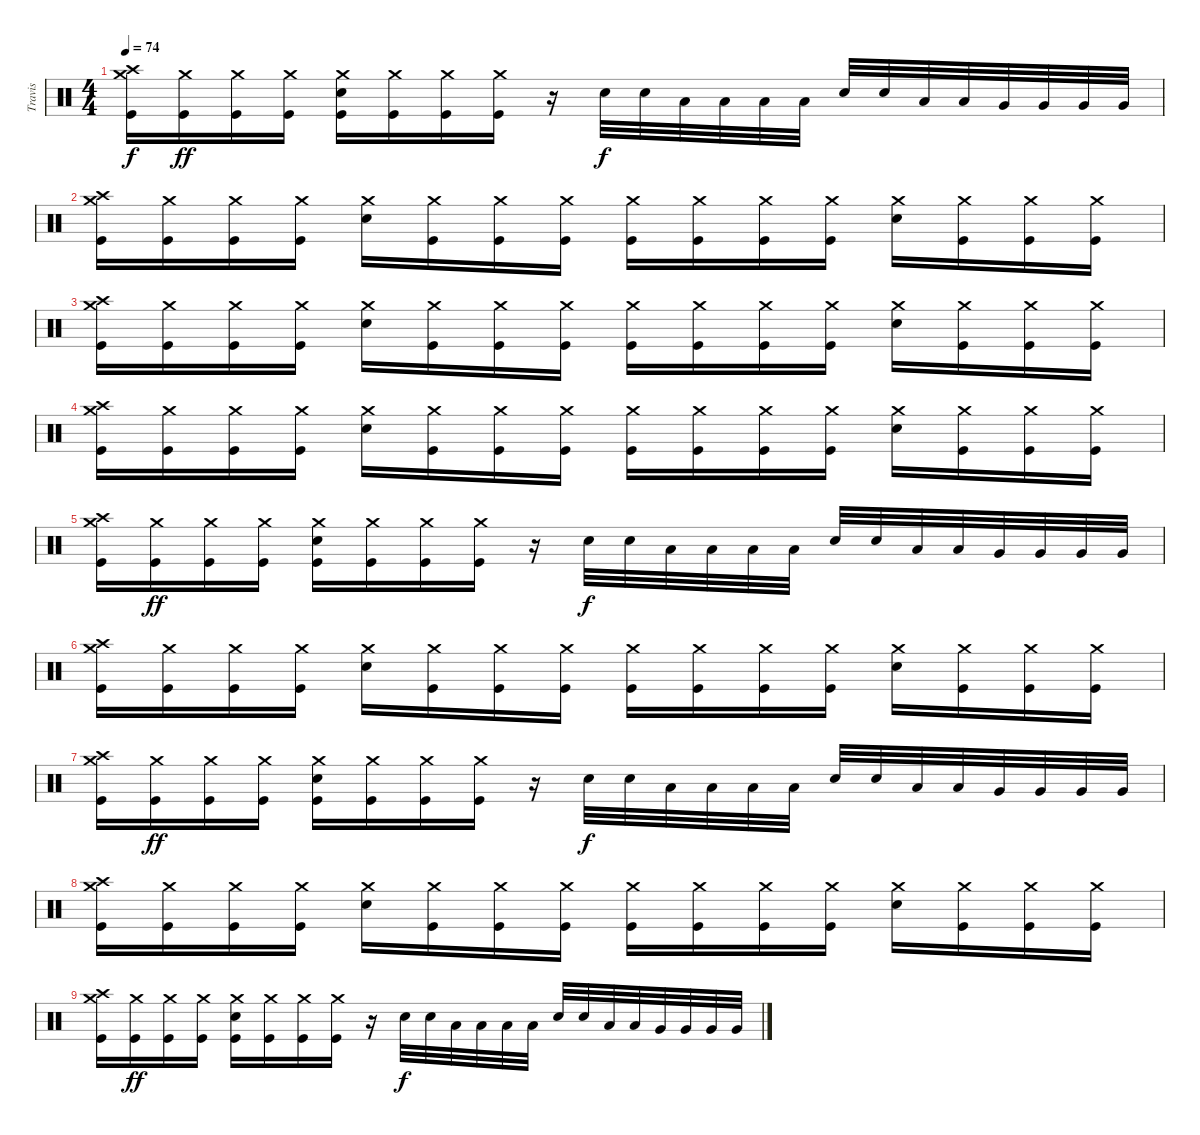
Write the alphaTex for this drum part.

\track ("Travis" "Travis") {instrument percussion}
\staff {score}
\articulation defaults
\ts (4 4)
\tempo 74
\clef neutral
\ks c
("Crash high (hit)" "Crash medium (hit)" "Kick (hit)").16{dy f} ("Crash medium (hit)" "Kick (hit)").16{dy ff} ("Crash medium (hit)" "Kick (hit)").16 ("Crash medium (hit)" "Kick (hit)").16 ("Crash medium (hit)" "Electric Snare (hit)" "Kick (hit)").16 ("Crash medium (hit)" "Kick (hit)").16 ("Crash medium (hit)" "Kick (hit)").16 ("Crash medium (hit)" "Kick (hit)").16 r.16 "Electric Snare (hit)".32{dy f} "Electric Snare (hit)".32 "Low Tom (hit)".32 "Low Tom (hit)".32 "Low Tom (hit)".32 "Low Tom (hit)".32 "Electric Snare (hit)".32 "Electric Snare (hit)".32 "Low Tom (hit)".32 "Low Tom (hit)".32 "Very Low Tom (hit)".32 "Very Low Tom (hit)".32 "Very Low Tom (hit)".32 "Very Low Tom (hit)".32 |
("Crash high (hit)" "Crash medium (hit)" "Kick (hit)").16 ("Crash medium (hit)" "Kick (hit)").16 ("Crash medium (hit)" "Kick (hit)").16 ("Crash medium (hit)" "Kick (hit)").16 ("Crash medium (hit)" "Electric Snare (hit)").16 ("Crash medium (hit)" "Kick (hit)").16 ("Crash medium (hit)" "Kick (hit)").16 ("Crash medium (hit)" "Kick (hit)").16 ("Crash medium (hit)" "Kick (hit)").16 ("Crash medium (hit)" "Kick (hit)").16 ("Crash medium (hit)" "Kick (hit)").16 ("Crash medium (hit)" "Kick (hit)").16 ("Crash medium (hit)" "Electric Snare (hit)").16 ("Crash medium (hit)" "Kick (hit)").16 ("Crash medium (hit)" "Kick (hit)").16 ("Crash medium (hit)" "Kick (hit)").16 |
("Crash high (hit)" "Crash medium (hit)" "Kick (hit)").16 ("Crash medium (hit)" "Kick (hit)").16 ("Crash medium (hit)" "Kick (hit)").16 ("Crash medium (hit)" "Kick (hit)").16 ("Crash medium (hit)" "Electric Snare (hit)").16 ("Crash medium (hit)" "Kick (hit)").16 ("Crash medium (hit)" "Kick (hit)").16 ("Crash medium (hit)" "Kick (hit)").16 ("Crash medium (hit)" "Kick (hit)").16 ("Crash medium (hit)" "Kick (hit)").16 ("Crash medium (hit)" "Kick (hit)").16 ("Crash medium (hit)" "Kick (hit)").16 ("Crash medium (hit)" "Electric Snare (hit)").16 ("Crash medium (hit)" "Kick (hit)").16 ("Crash medium (hit)" "Kick (hit)").16 ("Crash medium (hit)" "Kick (hit)").16 |
("Crash high (hit)" "Crash medium (hit)" "Kick (hit)").16 ("Crash medium (hit)" "Kick (hit)").16 ("Crash medium (hit)" "Kick (hit)").16 ("Crash medium (hit)" "Kick (hit)").16 ("Crash medium (hit)" "Electric Snare (hit)").16 ("Crash medium (hit)" "Kick (hit)").16 ("Crash medium (hit)" "Kick (hit)").16 ("Crash medium (hit)" "Kick (hit)").16 ("Crash medium (hit)" "Kick (hit)").16 ("Crash medium (hit)" "Kick (hit)").16 ("Crash medium (hit)" "Kick (hit)").16 ("Crash medium (hit)" "Kick (hit)").16 ("Crash medium (hit)" "Electric Snare (hit)").16 ("Crash medium (hit)" "Kick (hit)").16 ("Crash medium (hit)" "Kick (hit)").16 ("Crash medium (hit)" "Kick (hit)").16 |
("Crash high (hit)" "Crash medium (hit)" "Kick (hit)").16 ("Crash medium (hit)" "Kick (hit)").16{dy ff} ("Crash medium (hit)" "Kick (hit)").16 ("Crash medium (hit)" "Kick (hit)").16 ("Crash medium (hit)" "Electric Snare (hit)" "Kick (hit)").16 ("Crash medium (hit)" "Kick (hit)").16 ("Crash medium (hit)" "Kick (hit)").16 ("Crash medium (hit)" "Kick (hit)").16 r.16 "Electric Snare (hit)".32{dy f} "Electric Snare (hit)".32 "Low Tom (hit)".32 "Low Tom (hit)".32 "Low Tom (hit)".32 "Low Tom (hit)".32 "Electric Snare (hit)".32 "Electric Snare (hit)".32 "Low Tom (hit)".32 "Low Tom (hit)".32 "Very Low Tom (hit)".32 "Very Low Tom (hit)".32 "Very Low Tom (hit)".32 "Very Low Tom (hit)".32 |
("Crash high (hit)" "Crash medium (hit)" "Kick (hit)").16 ("Crash medium (hit)" "Kick (hit)").16 ("Crash medium (hit)" "Kick (hit)").16 ("Crash medium (hit)" "Kick (hit)").16 ("Crash medium (hit)" "Electric Snare (hit)").16 ("Crash medium (hit)" "Kick (hit)").16 ("Crash medium (hit)" "Kick (hit)").16 ("Crash medium (hit)" "Kick (hit)").16 ("Crash medium (hit)" "Kick (hit)").16 ("Crash medium (hit)" "Kick (hit)").16 ("Crash medium (hit)" "Kick (hit)").16 ("Crash medium (hit)" "Kick (hit)").16 ("Crash medium (hit)" "Electric Snare (hit)").16 ("Crash medium (hit)" "Kick (hit)").16 ("Crash medium (hit)" "Kick (hit)").16 ("Crash medium (hit)" "Kick (hit)").16 |
("Crash high (hit)" "Crash medium (hit)" "Kick (hit)").16 ("Crash medium (hit)" "Kick (hit)").16{dy ff} ("Crash medium (hit)" "Kick (hit)").16 ("Crash medium (hit)" "Kick (hit)").16 ("Crash medium (hit)" "Electric Snare (hit)" "Kick (hit)").16 ("Crash medium (hit)" "Kick (hit)").16 ("Crash medium (hit)" "Kick (hit)").16 ("Crash medium (hit)" "Kick (hit)").16 r.16 "Electric Snare (hit)".32{dy f} "Electric Snare (hit)".32 "Low Tom (hit)".32 "Low Tom (hit)".32 "Low Tom (hit)".32 "Low Tom (hit)".32 "Electric Snare (hit)".32 "Electric Snare (hit)".32 "Low Tom (hit)".32 "Low Tom (hit)".32 "Very Low Tom (hit)".32 "Very Low Tom (hit)".32 "Very Low Tom (hit)".32 "Very Low Tom (hit)".32 |
("Crash high (hit)" "Crash medium (hit)" "Kick (hit)").16 ("Crash medium (hit)" "Kick (hit)").16 ("Crash medium (hit)" "Kick (hit)").16 ("Crash medium (hit)" "Kick (hit)").16 ("Crash medium (hit)" "Electric Snare (hit)").16 ("Crash medium (hit)" "Kick (hit)").16 ("Crash medium (hit)" "Kick (hit)").16 ("Crash medium (hit)" "Kick (hit)").16 ("Crash medium (hit)" "Kick (hit)").16 ("Crash medium (hit)" "Kick (hit)").16 ("Crash medium (hit)" "Kick (hit)").16 ("Crash medium (hit)" "Kick (hit)").16 ("Crash medium (hit)" "Electric Snare (hit)").16 ("Crash medium (hit)" "Kick (hit)").16 ("Crash medium (hit)" "Kick (hit)").16 ("Crash medium (hit)" "Kick (hit)").16 |
("Crash high (hit)" "Crash medium (hit)" "Kick (hit)").16 ("Crash medium (hit)" "Kick (hit)").16{dy ff} ("Crash medium (hit)" "Kick (hit)").16 ("Crash medium (hit)" "Kick (hit)").16 ("Crash medium (hit)" "Electric Snare (hit)" "Kick (hit)").16 ("Crash medium (hit)" "Kick (hit)").16 ("Crash medium (hit)" "Kick (hit)").16 ("Crash medium (hit)" "Kick (hit)").16 r.16 "Electric Snare (hit)".32{dy f} "Electric Snare (hit)".32 "Low Tom (hit)".32 "Low Tom (hit)".32 "Low Tom (hit)".32 "Low Tom (hit)".32 "Electric Snare (hit)".32 "Electric Snare (hit)".32 "Low Tom (hit)".32 "Low Tom (hit)".32 "Very Low Tom (hit)".32 "Very Low Tom (hit)".32 "Very Low Tom (hit)".32 "Very Low Tom (hit)".32
